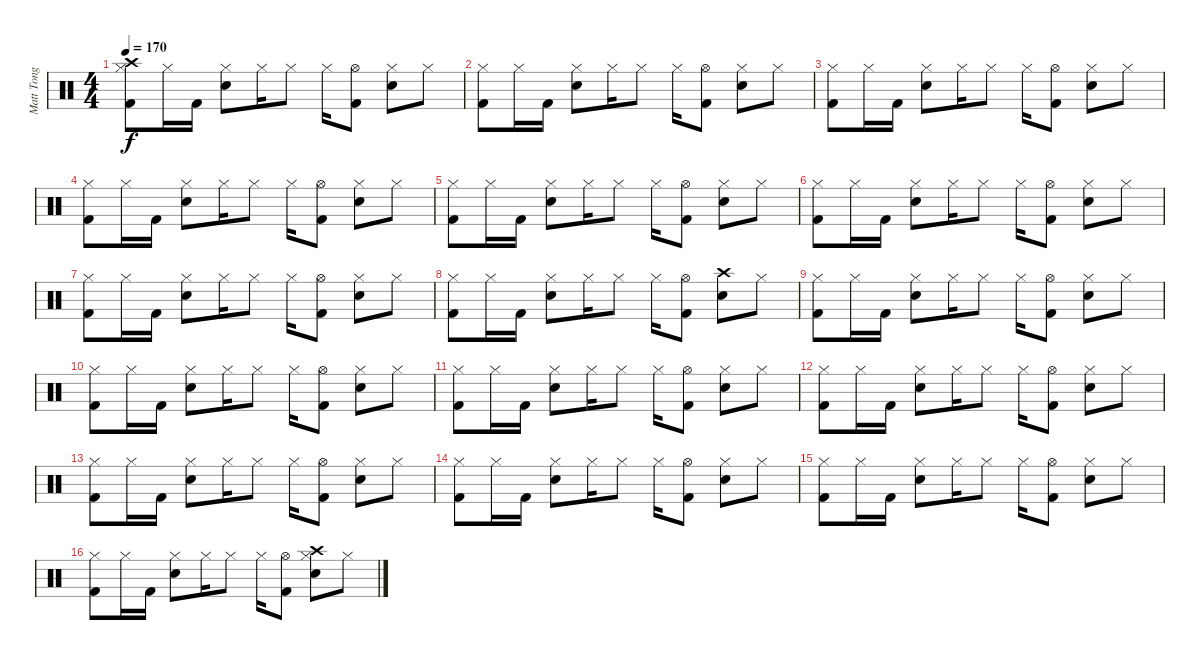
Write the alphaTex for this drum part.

\track ("Matt Tong" "Matt Tong") {instrument percussion}
\staff {score}
\articulation defaults
\ts (4 4)
\tempo 170
\clef neutral
\ks c
("Crash high (hit)" "Hi-Hat (closed)" "Kick (hit) 2").8{dy f} "Hi-Hat (closed)".16 "Kick (hit) 2".16 ("Hi-Hat (closed)" "Electric Snare (hit)").8 "Hi-Hat (closed)".16 "Hi-Hat (closed)".8 "Hi-Hat (closed)".16 ("Hi-Hat (open)" "Kick (hit) 2").8 ("Hi-Hat (closed)" "Electric Snare (hit)").8 "Hi-Hat (closed)".8 |
("Hi-Hat (closed)" "Kick (hit) 2").8 "Hi-Hat (closed)".16 "Kick (hit) 2".16 ("Hi-Hat (closed)" "Electric Snare (hit)").8 "Hi-Hat (closed)".16 "Hi-Hat (closed)".8 "Hi-Hat (closed)".16 ("Hi-Hat (open)" "Kick (hit) 2").8 ("Hi-Hat (closed)" "Electric Snare (hit)").8 "Hi-Hat (closed)".8 |
("Hi-Hat (closed)" "Kick (hit) 2").8 "Hi-Hat (closed)".16 "Kick (hit) 2".16 ("Hi-Hat (closed)" "Electric Snare (hit)").8 "Hi-Hat (closed)".16 "Hi-Hat (closed)".8 "Hi-Hat (closed)".16 ("Hi-Hat (open)" "Kick (hit) 2").8 ("Hi-Hat (closed)" "Electric Snare (hit)").8 "Hi-Hat (closed)".8 |
("Hi-Hat (closed)" "Kick (hit) 2").8 "Hi-Hat (closed)".16 "Kick (hit) 2".16 ("Hi-Hat (closed)" "Electric Snare (hit)").8 "Hi-Hat (closed)".16 "Hi-Hat (closed)".8 "Hi-Hat (closed)".16 ("Hi-Hat (open)" "Kick (hit) 2").8 ("Hi-Hat (closed)" "Electric Snare (hit)").8 "Hi-Hat (closed)".8 |
("Hi-Hat (closed)" "Kick (hit) 2").8 "Hi-Hat (closed)".16 "Kick (hit) 2".16 ("Hi-Hat (closed)" "Electric Snare (hit)").8 "Hi-Hat (closed)".16 "Hi-Hat (closed)".8 "Hi-Hat (closed)".16 ("Hi-Hat (open)" "Kick (hit) 2").8 ("Hi-Hat (closed)" "Electric Snare (hit)").8 "Hi-Hat (closed)".8 |
("Hi-Hat (closed)" "Kick (hit) 2").8 "Hi-Hat (closed)".16 "Kick (hit) 2".16 ("Hi-Hat (closed)" "Electric Snare (hit)").8 "Hi-Hat (closed)".16 "Hi-Hat (closed)".8 "Hi-Hat (closed)".16 ("Hi-Hat (open)" "Kick (hit) 2").8 ("Hi-Hat (closed)" "Electric Snare (hit)").8 "Hi-Hat (closed)".8 |
("Hi-Hat (closed)" "Kick (hit) 2").8 "Hi-Hat (closed)".16 "Kick (hit) 2".16 ("Hi-Hat (closed)" "Electric Snare (hit)").8 "Hi-Hat (closed)".16 "Hi-Hat (closed)".8 "Hi-Hat (closed)".16 ("Hi-Hat (open)" "Kick (hit) 2").8 ("Hi-Hat (closed)" "Electric Snare (hit)").8 "Hi-Hat (closed)".8 |
("Hi-Hat (closed)" "Kick (hit) 2").8 "Hi-Hat (closed)".16 "Kick (hit) 2".16 ("Hi-Hat (closed)" "Electric Snare (hit)").8 "Hi-Hat (closed)".16 "Hi-Hat (closed)".8 "Hi-Hat (closed)".16 ("Hi-Hat (open)" "Kick (hit) 2").8 ("Crash high (hit)" "Electric Snare (hit)").8 "Hi-Hat (closed)".8 |
("Hi-Hat (closed)" "Kick (hit) 2").8 "Hi-Hat (closed)".16 "Kick (hit) 2".16 ("Hi-Hat (closed)" "Electric Snare (hit)").8 "Hi-Hat (closed)".16 "Hi-Hat (closed)".8 "Hi-Hat (closed)".16 ("Hi-Hat (open)" "Kick (hit) 2").8 ("Hi-Hat (closed)" "Electric Snare (hit)").8 "Hi-Hat (closed)".8 |
("Hi-Hat (closed)" "Kick (hit) 2").8 "Hi-Hat (closed)".16 "Kick (hit) 2".16 ("Hi-Hat (closed)" "Electric Snare (hit)").8 "Hi-Hat (closed)".16 "Hi-Hat (closed)".8 "Hi-Hat (closed)".16 ("Hi-Hat (open)" "Kick (hit) 2").8 ("Hi-Hat (closed)" "Electric Snare (hit)").8 "Hi-Hat (closed)".8 |
("Hi-Hat (closed)" "Kick (hit) 2").8 "Hi-Hat (closed)".16 "Kick (hit) 2".16 ("Hi-Hat (closed)" "Electric Snare (hit)").8 "Hi-Hat (closed)".16 "Hi-Hat (closed)".8 "Hi-Hat (closed)".16 ("Hi-Hat (open)" "Kick (hit) 2").8 ("Hi-Hat (closed)" "Electric Snare (hit)").8 "Hi-Hat (closed)".8 |
("Hi-Hat (closed)" "Kick (hit) 2").8 "Hi-Hat (closed)".16 "Kick (hit) 2".16 ("Hi-Hat (closed)" "Electric Snare (hit)").8 "Hi-Hat (closed)".16 "Hi-Hat (closed)".8 "Hi-Hat (closed)".16 ("Hi-Hat (open)" "Kick (hit) 2").8 ("Hi-Hat (closed)" "Electric Snare (hit)").8 "Hi-Hat (closed)".8 |
("Hi-Hat (closed)" "Kick (hit) 2").8 "Hi-Hat (closed)".16 "Kick (hit) 2".16 ("Hi-Hat (closed)" "Electric Snare (hit)").8 "Hi-Hat (closed)".16 "Hi-Hat (closed)".8 "Hi-Hat (closed)".16 ("Hi-Hat (open)" "Kick (hit) 2").8 ("Hi-Hat (closed)" "Electric Snare (hit)").8 "Hi-Hat (closed)".8 |
("Hi-Hat (closed)" "Kick (hit) 2").8 "Hi-Hat (closed)".16 "Kick (hit) 2".16 ("Hi-Hat (closed)" "Electric Snare (hit)").8 "Hi-Hat (closed)".16 "Hi-Hat (closed)".8 "Hi-Hat (closed)".16 ("Hi-Hat (open)" "Kick (hit) 2").8 ("Hi-Hat (closed)" "Electric Snare (hit)").8 "Hi-Hat (closed)".8 |
("Hi-Hat (closed)" "Kick (hit) 2").8 "Hi-Hat (closed)".16 "Kick (hit) 2".16 ("Hi-Hat (closed)" "Electric Snare (hit)").8 "Hi-Hat (closed)".16 "Hi-Hat (closed)".8 "Hi-Hat (closed)".16 ("Hi-Hat (open)" "Kick (hit) 2").8 ("Hi-Hat (closed)" "Electric Snare (hit)").8 "Hi-Hat (closed)".8 |
("Hi-Hat (closed)" "Kick (hit) 2").8 "Hi-Hat (closed)".16 "Kick (hit) 2".16 ("Hi-Hat (closed)" "Electric Snare (hit)").8 "Hi-Hat (closed)".16 "Hi-Hat (closed)".8 "Hi-Hat (closed)".16 ("Hi-Hat (open)" "Kick (hit) 2").8 ("Crash high (hit)" "Hi-Hat (closed)" "Electric Snare (hit)").8 "Hi-Hat (closed)".8
